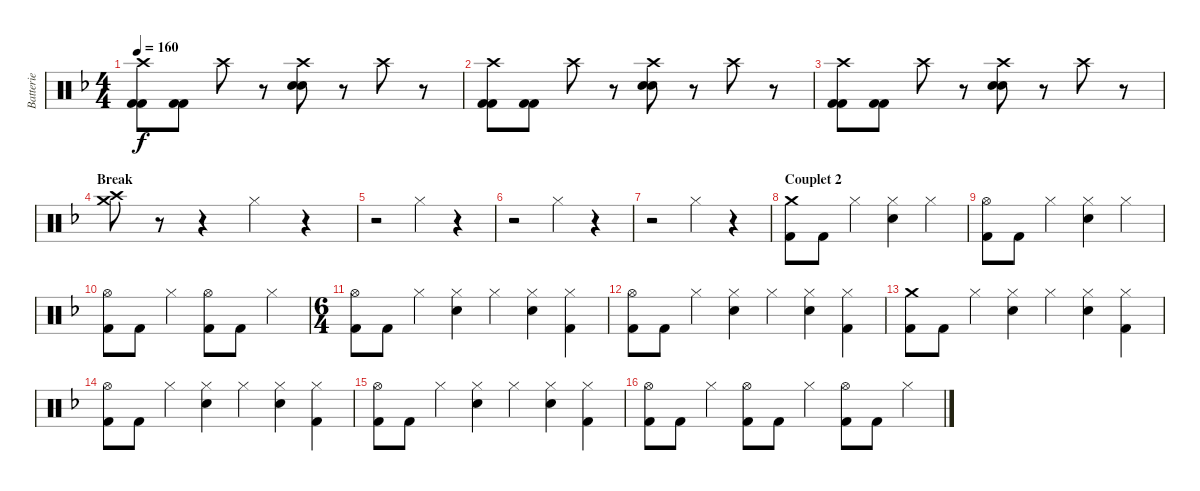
\track ("Batterie" "Batterie") {instrument percussion}
\staff {score}
\articulation defaults
\ts (4 4)
\tempo 160
\clef neutral
\ks f
("Crash high (hit)" "Kick (hit) 2" "Kick (hit) 2").8{dy f} ("Kick (hit) 2" "Kick (hit) 2").8 "Crash high (hit)".8 r.8 ("Crash high (hit)" "Electric Snare (hit)" "Electric Snare (hit)").8 r.8 "Crash high (hit)".8 r.8 |
("Crash high (hit)" "Kick (hit) 2" "Kick (hit) 2").8 ("Kick (hit) 2" "Kick (hit) 2").8 "Crash high (hit)".8 r.8 ("Crash high (hit)" "Electric Snare (hit)" "Electric Snare (hit)").8 r.8 "Crash high (hit)".8 r.8 |
("Crash high (hit)" "Kick (hit) 2" "Kick (hit) 2").8 ("Kick (hit) 2" "Kick (hit) 2").8 "Crash high (hit)".8 r.8 ("Crash high (hit)" "Electric Snare (hit)" "Electric Snare (hit)").8 r.8 "Crash high (hit)".8 r.8 |
\section ("" "Break")
("Crash high (hit)" "Crash medium (hit)").8 r.8 r.4 "Hi-Hat (closed)".4 r.4 |
r.2 "Hi-Hat (closed)".4 r.4 |
r.2 "Hi-Hat (closed)".4 r.4 |
r.2 "Hi-Hat (closed)".4 r.4 |
\section ("" "Couplet 2")
("Crash medium (hit)" "Kick (hit) 2").8 "Kick (hit) 2".8 "Hi-Hat (closed)".4 ("Hi-Hat (closed)" "Electric Snare (hit)").4 "Hi-Hat (closed)".4 |
("Hi-Hat (open)" "Kick (hit) 2").8 "Kick (hit) 2".8 "Hi-Hat (closed)".4 ("Hi-Hat (closed)" "Electric Snare (hit)").4 "Hi-Hat (closed)".4 |
("Hi-Hat (open)" "Kick (hit) 2").8 "Kick (hit) 2".8 "Hi-Hat (closed)".4 ("Hi-Hat (open)" "Kick (hit) 2").8 "Kick (hit) 2".8 "Hi-Hat (closed)".4 |
\ts (6 4)
("Hi-Hat (open)" "Kick (hit) 2").8 "Kick (hit) 2".8 "Hi-Hat (closed)".4 ("Hi-Hat (closed)" "Electric Snare (hit)").4 "Hi-Hat (closed)".4 ("Hi-Hat (closed)" "Electric Snare (hit)").4 ("Hi-Hat (closed)" "Kick (hit) 2").4 |
("Hi-Hat (open)" "Kick (hit) 2").8 "Kick (hit) 2".8 "Hi-Hat (closed)".4 ("Hi-Hat (closed)" "Electric Snare (hit)").4 "Hi-Hat (closed)".4 ("Hi-Hat (closed)" "Electric Snare (hit)").4 ("Hi-Hat (closed)" "Kick (hit) 2").4 |
("Crash medium (hit)" "Kick (hit) 2").8 "Kick (hit) 2".8 "Hi-Hat (closed)".4 ("Hi-Hat (closed)" "Electric Snare (hit)").4 "Hi-Hat (closed)".4 ("Hi-Hat (closed)" "Electric Snare (hit)").4 ("Hi-Hat (closed)" "Kick (hit) 2").4 |
("Hi-Hat (open)" "Kick (hit) 2").8 "Kick (hit) 2".8 "Hi-Hat (closed)".4 ("Hi-Hat (closed)" "Electric Snare (hit)").4 "Hi-Hat (closed)".4 ("Hi-Hat (closed)" "Electric Snare (hit)").4 ("Hi-Hat (closed)" "Kick (hit) 2").4 |
("Hi-Hat (open)" "Kick (hit) 2").8 "Kick (hit) 2".8 "Hi-Hat (closed)".4 ("Hi-Hat (closed)" "Electric Snare (hit)").4 "Hi-Hat (closed)".4 ("Hi-Hat (closed)" "Electric Snare (hit)").4 ("Hi-Hat (closed)" "Kick (hit) 2").4 |
("Hi-Hat (open)" "Kick (hit) 2").8 "Kick (hit) 2".8 "Hi-Hat (closed)".4 ("Hi-Hat (open)" "Kick (hit) 2").8 "Kick (hit) 2".8 "Hi-Hat (closed)".4 ("Hi-Hat (open)" "Kick (hit) 2").8 "Kick (hit) 2".8 "Hi-Hat (closed)".4
